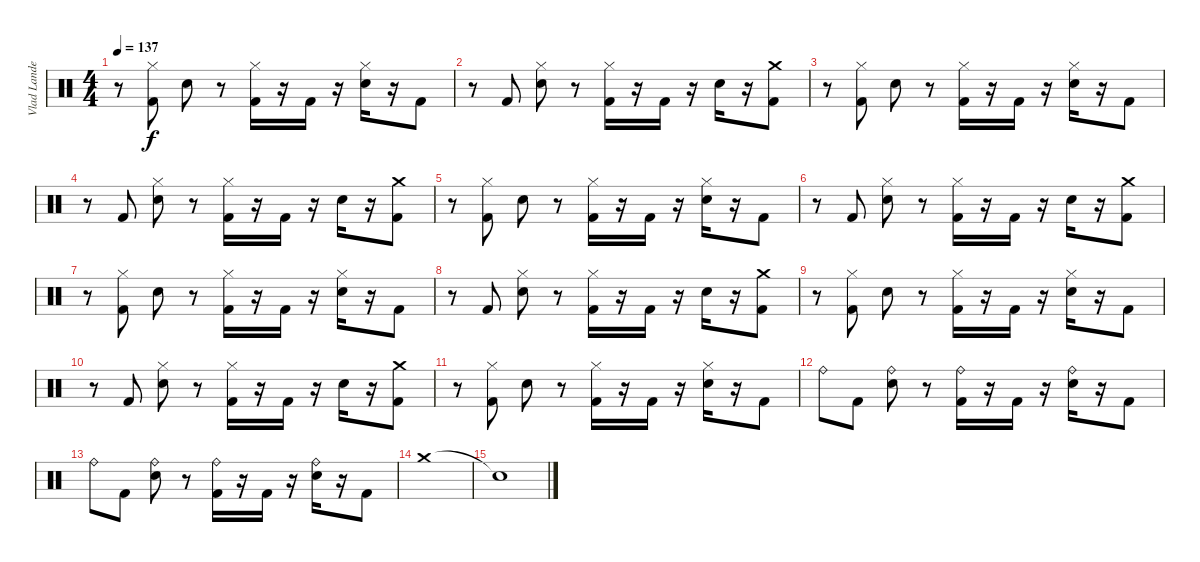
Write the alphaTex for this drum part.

\track ("Vlad Landeros" "Vlad Lande") {instrument percussion}
\staff {score}
\articulation defaults
\ts (4 4)
\tempo 137
\clef neutral
\ks c
r.8{dy f} ("Kick (hit) 2" "Hi-Hat (closed)").8 "Electric Snare (hit)".8 r.8 ("Kick (hit) 2" "Hi-Hat (closed)").16 r.16 "Kick (hit) 2".16 r.16 ("Electric Snare (hit)" "Hi-Hat (closed)").16 r.16 "Kick (hit) 2".8 |
r.8 "Kick (hit) 2".8 ("Electric Snare (hit)" "Hi-Hat (closed)").8 r.8 ("Kick (hit) 2" "Hi-Hat (closed)").16 r.16 "Kick (hit) 2".16 r.16 "Electric Snare (hit)".16 r.16 ("Kick (hit) 2" "Crash medium (hit)").8 |
r.8 ("Kick (hit) 2" "Hi-Hat (closed)").8 "Electric Snare (hit)".8 r.8 ("Kick (hit) 2" "Hi-Hat (closed)").16 r.16 "Kick (hit) 2".16 r.16 ("Electric Snare (hit)" "Hi-Hat (closed)").16 r.16 "Kick (hit) 2".8 |
r.8 "Kick (hit) 2".8 ("Electric Snare (hit)" "Hi-Hat (closed)").8 r.8 ("Kick (hit) 2" "Hi-Hat (closed)").16 r.16 "Kick (hit) 2".16 r.16 "Electric Snare (hit)".16 r.16 ("Kick (hit) 2" "Crash medium (hit)").8 |
r.8 ("Kick (hit) 2" "Hi-Hat (closed)").8 "Electric Snare (hit)".8 r.8 ("Kick (hit) 2" "Hi-Hat (closed)").16 r.16 "Kick (hit) 2".16 r.16 ("Electric Snare (hit)" "Hi-Hat (closed)").16 r.16 "Kick (hit) 2".8 |
r.8 "Kick (hit) 2".8 ("Electric Snare (hit)" "Hi-Hat (closed)").8 r.8 ("Kick (hit) 2" "Hi-Hat (closed)").16 r.16 "Kick (hit) 2".16 r.16 "Electric Snare (hit)".16 r.16 ("Kick (hit) 2" "Crash medium (hit)").8 |
r.8 ("Kick (hit) 2" "Hi-Hat (closed)").8 "Electric Snare (hit)".8 r.8 ("Kick (hit) 2" "Hi-Hat (closed)").16 r.16 "Kick (hit) 2".16 r.16 ("Electric Snare (hit)" "Hi-Hat (closed)").16 r.16 "Kick (hit) 2".8 |
r.8 "Kick (hit) 2".8 ("Electric Snare (hit)" "Hi-Hat (closed)").8 r.8 ("Kick (hit) 2" "Hi-Hat (closed)").16 r.16 "Kick (hit) 2".16 r.16 "Electric Snare (hit)".16 r.16 ("Kick (hit) 2" "Crash medium (hit)").8 |
r.8 ("Kick (hit) 2" "Hi-Hat (closed)").8 "Electric Snare (hit)".8 r.8 ("Kick (hit) 2" "Hi-Hat (closed)").16 r.16 "Kick (hit) 2".16 r.16 ("Electric Snare (hit)" "Hi-Hat (closed)").16 r.16 "Kick (hit) 2".8 |
r.8 "Kick (hit) 2".8 ("Electric Snare (hit)" "Hi-Hat (closed)").8 r.8 ("Kick (hit) 2" "Hi-Hat (closed)").16 r.16 "Kick (hit) 2".16 r.16 "Electric Snare (hit)".16 r.16 ("Kick (hit) 2" "Crash medium (hit)").8 |
r.8 ("Kick (hit) 2" "Hi-Hat (closed)").8 "Electric Snare (hit)".8 r.8 ("Kick (hit) 2" "Hi-Hat (closed)").16 r.16 "Kick (hit) 2".16 r.16 ("Electric Snare (hit)" "Hi-Hat (closed)").16 r.16 "Kick (hit) 2".8 |
"Ride (bell)".8 "Kick (hit) 2".8 ("Electric Snare (hit)" "Ride (bell)").8 r.8 ("Kick (hit) 2" "Ride (bell)").16 r.16 "Kick (hit) 2".16 r.16 ("Electric Snare (hit)" "Ride (bell)").16 r.16 "Kick (hit) 2".8 |
"Ride (bell)".8 "Kick (hit) 2".8 ("Electric Snare (hit)" "Ride (bell)").8 r.8 ("Kick (hit) 2" "Ride (bell)").16 r.16 "Kick (hit) 2".16 r.16 ("Electric Snare (hit)" "Ride (bell)").16 r.16 "Kick (hit) 2".8 |
"Crash medium (hit)".1 |
"Snare (hit)"{t}.1
